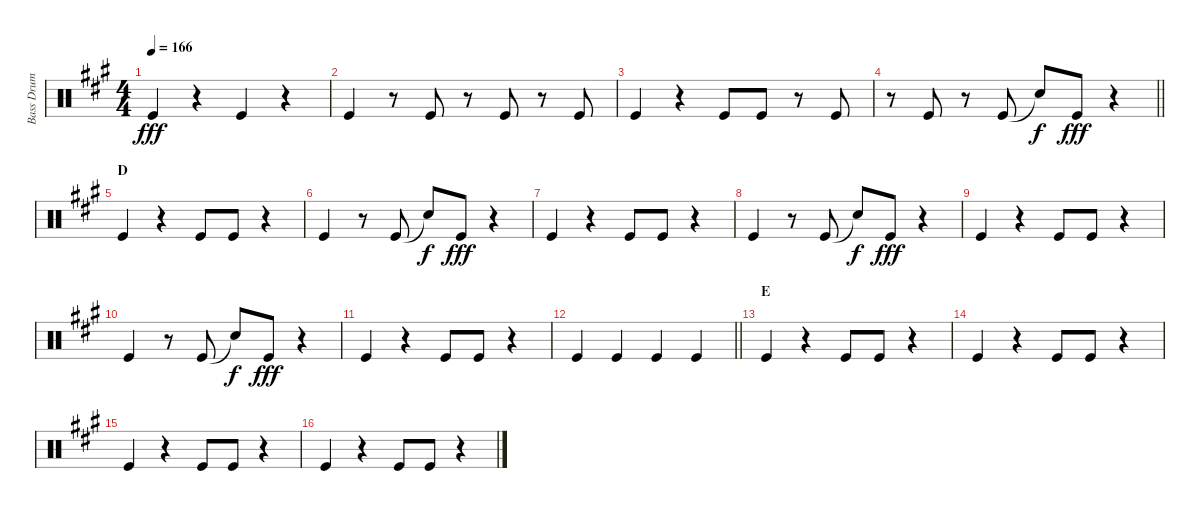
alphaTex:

\track ("Bass Drum" "Bass Drum") {instrument percussion}
\staff {score}
\articulation defaults
\ts (4 4)
\tempo 166
\clef neutral
\ks a "Kick (hit)".4{dy fff}
r.4 "Kick (hit)".4 r.4 |
"Kick (hit)".4 r.8 "Kick (hit)".8 r.8 "Kick (hit)".8 r.8 "Kick (hit)".8 |
"Kick (hit)".4 r.4 "Kick (hit)".8 "Kick (hit)".8 r.8 "Kick (hit)".8 |
\barLineRight lightlight
r.8 "Kick (hit)".8 r.8 "Kick (hit)".8 "Snare (hit)"{t}.8{dy f} "Kick (hit)".8{dy fff} r.4 |
\section ("" "D")
"Kick (hit)".4 r.4 "Kick (hit)".8 "Kick (hit)".8 r.4 |
"Kick (hit)".4 r.8 "Kick (hit)".8 "Snare (hit)"{t}.8{dy f} "Kick (hit)".8{dy fff} r.4 |
"Kick (hit)".4 r.4 "Kick (hit)".8 "Kick (hit)".8 r.4 |
"Kick (hit)".4 r.8 "Kick (hit)".8 "Snare (hit)"{t}.8{dy f} "Kick (hit)".8{dy fff} r.4 |
"Kick (hit)".4 r.4 "Kick (hit)".8 "Kick (hit)".8 r.4 |
"Kick (hit)".4 r.8 "Kick (hit)".8 "Snare (hit)"{t}.8{dy f} "Kick (hit)".8{dy fff} r.4 |
"Kick (hit)".4 r.4 "Kick (hit)".8 "Kick (hit)".8 r.4 |
\barLineRight lightlight "Kick (hit)".4 "Kick (hit)".4 "Kick (hit)".4 "Kick (hit)".4
|
\section ("" "E")
"Kick (hit)".4 r.4 "Kick (hit)".8 "Kick (hit)".8 r.4 |
"Kick (hit)".4 r.4 "Kick (hit)".8 "Kick (hit)".8 r.4 |
"Kick (hit)".4 r.4 "Kick (hit)".8 "Kick (hit)".8 r.4 |
"Kick (hit)".4 r.4 "Kick (hit)".8 "Kick (hit)".8 r.4
